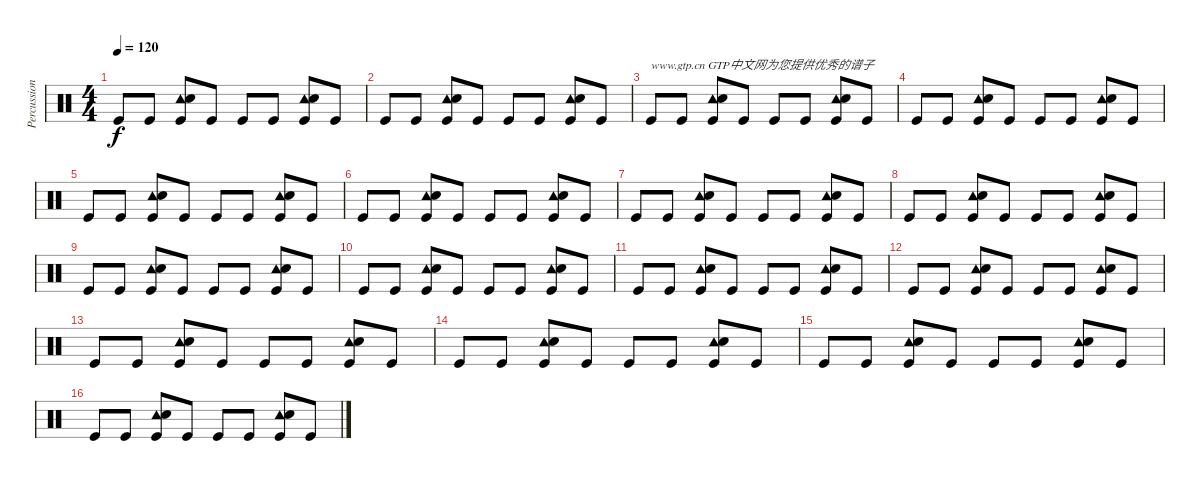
\track ("Percussions" "Percussion") {instrument percussion}
\staff {score}
\articulation defaults
\ts (4 4)
\tempo 120
\clef neutral
\ks c "Kick (hit)".8{dy f} "Kick (hit)".8
("Kick (hit)" "Tambourine (hit)" "Snare (hit) 2").8 "Kick (hit)".8 "Kick (hit)".8 "Kick (hit)".8 ("Kick (hit)" "Tambourine (hit)" "Snare (hit) 2").8 "Kick (hit)".8 |
"Kick (hit)".8 "Kick (hit)".8 ("Kick (hit)" "Tambourine (hit)" "Snare (hit) 2").8 "Kick (hit)".8 "Kick (hit)".8 "Kick (hit)".8 ("Kick (hit)" "Tambourine (hit)" "Snare (hit) 2").8 "Kick (hit)".8 |
"Kick (hit)".8{txt "www.gtp.cn GTP中文网为您提供优秀的谱子"} "Kick (hit)".8 ("Kick (hit)" "Tambourine (hit)" "Snare (hit) 2").8 "Kick (hit)".8 "Kick (hit)".8 "Kick (hit)".8 ("Kick (hit)" "Tambourine (hit)" "Snare (hit) 2").8 "Kick (hit)".8 |
"Kick (hit)".8 "Kick (hit)".8 ("Kick (hit)" "Tambourine (hit)" "Snare (hit) 2").8 "Kick (hit)".8 "Kick (hit)".8 "Kick (hit)".8 ("Kick (hit)" "Tambourine (hit)" "Snare (hit) 2").8 "Kick (hit)".8 |
"Kick (hit)".8 "Kick (hit)".8 ("Kick (hit)" "Tambourine (hit)" "Snare (hit) 2").8 "Kick (hit)".8 "Kick (hit)".8 "Kick (hit)".8 ("Kick (hit)" "Tambourine (hit)" "Snare (hit) 2").8 "Kick (hit)".8 |
"Kick (hit)".8 "Kick (hit)".8 ("Kick (hit)" "Tambourine (hit)" "Snare (hit) 2").8 "Kick (hit)".8 "Kick (hit)".8 "Kick (hit)".8 ("Kick (hit)" "Tambourine (hit)" "Snare (hit) 2").8 "Kick (hit)".8 |
"Kick (hit)".8 "Kick (hit)".8 ("Kick (hit)" "Tambourine (hit)" "Snare (hit) 2").8 "Kick (hit)".8 "Kick (hit)".8 "Kick (hit)".8 ("Kick (hit)" "Tambourine (hit)" "Snare (hit) 2").8 "Kick (hit)".8 |
"Kick (hit)".8 "Kick (hit)".8 ("Kick (hit)" "Tambourine (hit)" "Snare (hit) 2").8 "Kick (hit)".8 "Kick (hit)".8 "Kick (hit)".8 ("Kick (hit)" "Tambourine (hit)" "Snare (hit) 2").8 "Kick (hit)".8 |
"Kick (hit)".8 "Kick (hit)".8 ("Kick (hit)" "Tambourine (hit)" "Snare (hit) 2").8 "Kick (hit)".8 "Kick (hit)".8 "Kick (hit)".8 ("Kick (hit)" "Tambourine (hit)" "Snare (hit) 2").8 "Kick (hit)".8 |
"Kick (hit)".8 "Kick (hit)".8 ("Kick (hit)" "Tambourine (hit)" "Snare (hit) 2").8 "Kick (hit)".8 "Kick (hit)".8 "Kick (hit)".8 ("Kick (hit)" "Tambourine (hit)" "Snare (hit) 2").8 "Kick (hit)".8 |
"Kick (hit)".8 "Kick (hit)".8 ("Kick (hit)" "Tambourine (hit)" "Snare (hit) 2").8 "Kick (hit)".8 "Kick (hit)".8 "Kick (hit)".8 ("Kick (hit)" "Tambourine (hit)" "Snare (hit) 2").8 "Kick (hit)".8 |
"Kick (hit)".8 "Kick (hit)".8 ("Kick (hit)" "Tambourine (hit)" "Snare (hit) 2").8 "Kick (hit)".8 "Kick (hit)".8 "Kick (hit)".8 ("Kick (hit)" "Tambourine (hit)" "Snare (hit) 2").8 "Kick (hit)".8 |
"Kick (hit)".8 "Kick (hit)".8 ("Kick (hit)" "Tambourine (hit)" "Snare (hit) 2").8 "Kick (hit)".8 "Kick (hit)".8 "Kick (hit)".8 ("Kick (hit)" "Tambourine (hit)" "Snare (hit) 2").8 "Kick (hit)".8 |
"Kick (hit)".8 "Kick (hit)".8 ("Kick (hit)" "Tambourine (hit)" "Snare (hit) 2").8 "Kick (hit)".8 "Kick (hit)".8 "Kick (hit)".8 ("Kick (hit)" "Tambourine (hit)" "Snare (hit) 2").8 "Kick (hit)".8 |
"Kick (hit)".8 "Kick (hit)".8 ("Kick (hit)" "Tambourine (hit)" "Snare (hit) 2").8 "Kick (hit)".8 "Kick (hit)".8 "Kick (hit)".8 ("Kick (hit)" "Tambourine (hit)" "Snare (hit) 2").8 "Kick (hit)".8 |
"Kick (hit)".8 "Kick (hit)".8 ("Kick (hit)" "Tambourine (hit)" "Snare (hit) 2").8 "Kick (hit)".8 "Kick (hit)".8 "Kick (hit)".8 ("Kick (hit)" "Tambourine (hit)" "Snare (hit) 2").8 "Kick (hit)".8
